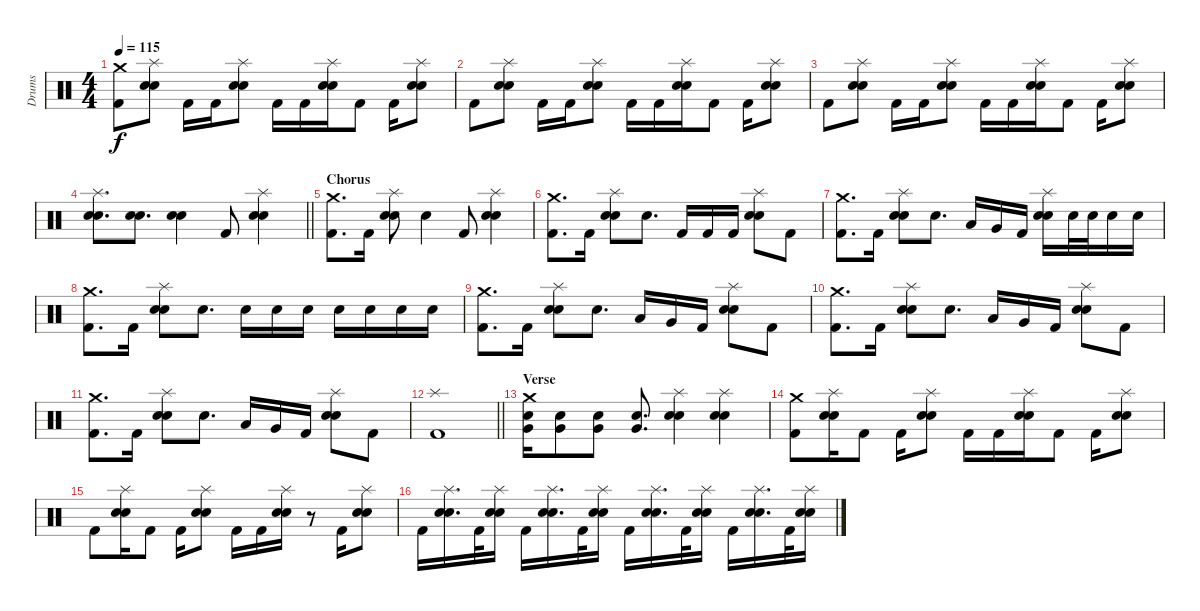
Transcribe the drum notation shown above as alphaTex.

\track ("Drums" "Drums") {instrument percussion}
\staff {score}
\articulation defaults
\ts (4 4)
\tempo 115
\clef neutral
\ks c
("Crash medium (hit)" "Kick (hit) 2").8{dy f} ("Splash (hit)" "Electric Snare (hit)" "Snare (hit) 2").8 "Kick (hit) 2".16 "Kick (hit) 2".16 ("Splash (hit)" "Electric Snare (hit)" "Snare (hit) 2").8 "Kick (hit) 2".16 "Kick (hit) 2".16 ("Splash (hit)" "Electric Snare (hit)" "Snare (hit) 2").16 "Kick (hit) 2".8 "Kick (hit) 2".16 ("Splash (hit)" "Electric Snare (hit)" "Snare (hit) 2").8 |
"Kick (hit) 2".8 ("Splash (hit)" "Electric Snare (hit)" "Snare (hit) 2").8 "Kick (hit) 2".16 "Kick (hit) 2".16 ("Splash (hit)" "Electric Snare (hit)" "Snare (hit) 2").8 "Kick (hit) 2".16 "Kick (hit) 2".16 ("Splash (hit)" "Electric Snare (hit)" "Snare (hit) 2").16 "Kick (hit) 2".8 "Kick (hit) 2".16 ("Splash (hit)" "Electric Snare (hit)" "Snare (hit) 2").8 |
"Kick (hit) 2".8 ("Splash (hit)" "Electric Snare (hit)" "Snare (hit) 2").8 "Kick (hit) 2".16 "Kick (hit) 2".16 ("Splash (hit)" "Electric Snare (hit)" "Snare (hit) 2").8 "Kick (hit) 2".16 "Kick (hit) 2".16 ("Splash (hit)" "Electric Snare (hit)" "Snare (hit) 2").16 "Kick (hit) 2".8 "Kick (hit) 2".16 ("Splash (hit)" "Electric Snare (hit)" "Snare (hit) 2").8 |
\barLineRight lightlight
("Splash (hit)" "Electric Snare (hit)" "Snare (hit) 2").8{d} ("Electric Snare (hit)" "Snare (hit) 2").8{d} ("Electric Snare (hit)" "Snare (hit) 2").4 "Kick (hit) 2".8 ("Splash (hit)" "Electric Snare (hit)" "Snare (hit) 2").4 |
\section ("" "Chorus")
("Crash medium (hit)" "Kick (hit) 2").8{d} "Kick (hit) 2".16 ("Splash (hit)" "Electric Snare (hit)" "Snare (hit) 2").8 "Electric Snare (hit)".4 "Kick (hit) 2".8 ("Splash (hit)" "Electric Snare (hit)" "Snare (hit) 2").4 |
("Crash medium (hit)" "Kick (hit) 2").8{d} "Kick (hit) 2".16 ("Splash (hit)" "Electric Snare (hit)" "Snare (hit) 2").8 "Electric Snare (hit)".8{d} "Kick (hit) 2".16 "Kick (hit) 2".16 "Kick (hit) 2".16 ("Splash (hit)" "Electric Snare (hit)" "Snare (hit) 2").8 "Kick (hit) 2".8 |
("Crash medium (hit)" "Kick (hit) 2").8{d} "Kick (hit) 2".16 ("Splash (hit)" "Electric Snare (hit)" "Snare (hit) 2").8 "Electric Snare (hit)".8{d} "Low Tom (hit)".16 "Very Low Tom (hit)".16 "Kick (hit) 2".16 ("Splash (hit)" "Electric Snare (hit)" "Snare (hit) 2").16 "Electric Snare (hit)".32 "Electric Snare (hit)".32 "Electric Snare (hit)".16 "Electric Snare (hit)".16 |
("Crash medium (hit)" "Kick (hit) 2").8{d} "Kick (hit) 2".16 ("Splash (hit)" "Electric Snare (hit)" "Snare (hit) 2").8 "Electric Snare (hit)".8{d} "Electric Snare (hit)".16 "Electric Snare (hit)".16 "Electric Snare (hit)".16 "Electric Snare (hit)".16 "Electric Snare (hit)".16 "Electric Snare (hit)".16 "Electric Snare (hit)".16 |
("Crash medium (hit)" "Kick (hit) 2").8{d} "Kick (hit) 2".16 ("Splash (hit)" "Electric Snare (hit)" "Snare (hit) 2").8 "Electric Snare (hit)".8{d} "Low Tom (hit)".16 "Very Low Tom (hit)".16 "Kick (hit) 2".16 ("Splash (hit)" "Electric Snare (hit)" "Snare (hit) 2").8 "Kick (hit) 2".8 |
("Crash medium (hit)" "Kick (hit) 2").8{d} "Kick (hit) 2".16 ("Splash (hit)" "Electric Snare (hit)" "Snare (hit) 2").8 "Electric Snare (hit)".8{d} "Low Tom (hit)".16 "Very Low Tom (hit)".16 "Kick (hit) 2".16 ("Splash (hit)" "Electric Snare (hit)" "Snare (hit) 2").8 "Kick (hit) 2".8 |
("Crash medium (hit)" "Kick (hit) 2").8{d} "Kick (hit) 2".16 ("Splash (hit)" "Electric Snare (hit)" "Snare (hit) 2").8 "Electric Snare (hit)".8{d} "Low Tom (hit)".16 "Very Low Tom (hit)".16 "Kick (hit) 2".16 ("Splash (hit)" "Electric Snare (hit)" "Snare (hit) 2").8 "Kick (hit) 2".8 |
\barLineRight lightlight
("Splash (hit)" "Kick (hit) 2").1 |
\section ("" "Verse")
("Crash medium (hit)" "Very Low Tom (hit)" "Snare (hit) 2").16 ("Very Low Tom (hit)" "Snare (hit) 2").8 ("Very Low Tom (hit)" "Snare (hit) 2").8 ("Very Low Tom (hit)" "Snare (hit) 2").8{d} ("Splash (hit)" "Electric Snare (hit)" "Snare (hit) 2").4 ("Splash (hit)" "Electric Snare (hit)" "Snare (hit) 2").4 |
("Crash medium (hit)" "Kick (hit) 2").8 ("Splash (hit)" "Electric Snare (hit)" "Snare (hit) 2").16 "Kick (hit) 2".8 "Kick (hit) 2".16 ("Splash (hit)" "Electric Snare (hit)" "Snare (hit) 2").8 "Kick (hit) 2".16 "Kick (hit) 2".16 ("Splash (hit)" "Electric Snare (hit)" "Snare (hit) 2").16 "Kick (hit) 2".8 "Kick (hit) 2".16 ("Splash (hit)" "Electric Snare (hit)" "Snare (hit) 2").8 |
"Kick (hit) 2".8 ("Splash (hit)" "Electric Snare (hit)" "Snare (hit) 2").16 "Kick (hit) 2".8 "Kick (hit) 2".16 ("Splash (hit)" "Electric Snare (hit)" "Snare (hit) 2").8 "Kick (hit) 2".16 "Kick (hit) 2".16 ("Splash (hit)" "Electric Snare (hit)" "Snare (hit) 2").16 r.8 "Kick (hit) 2".16 ("Splash (hit)" "Electric Snare (hit)" "Snare (hit) 2").8 |
"Kick (hit) 2".16 ("Splash (hit)" "Electric Snare (hit)" "Snare (hit) 2").16{d} "Kick (hit) 2".32 ("Splash (hit)" "Electric Snare (hit)" "Snare (hit) 2").16 "Kick (hit) 2".16 ("Splash (hit)" "Electric Snare (hit)" "Snare (hit) 2").16{d} "Kick (hit) 2".32 ("Splash (hit)" "Electric Snare (hit)" "Snare (hit) 2").16 "Kick (hit) 2".16 ("Splash (hit)" "Electric Snare (hit)" "Snare (hit) 2").16{d} "Kick (hit) 2".32 ("Splash (hit)" "Electric Snare (hit)" "Snare (hit) 2").16 "Kick (hit) 2".16 ("Splash (hit)" "Electric Snare (hit)" "Snare (hit) 2").16{d} "Kick (hit) 2".32 ("Splash (hit)" "Electric Snare (hit)" "Snare (hit) 2").16
